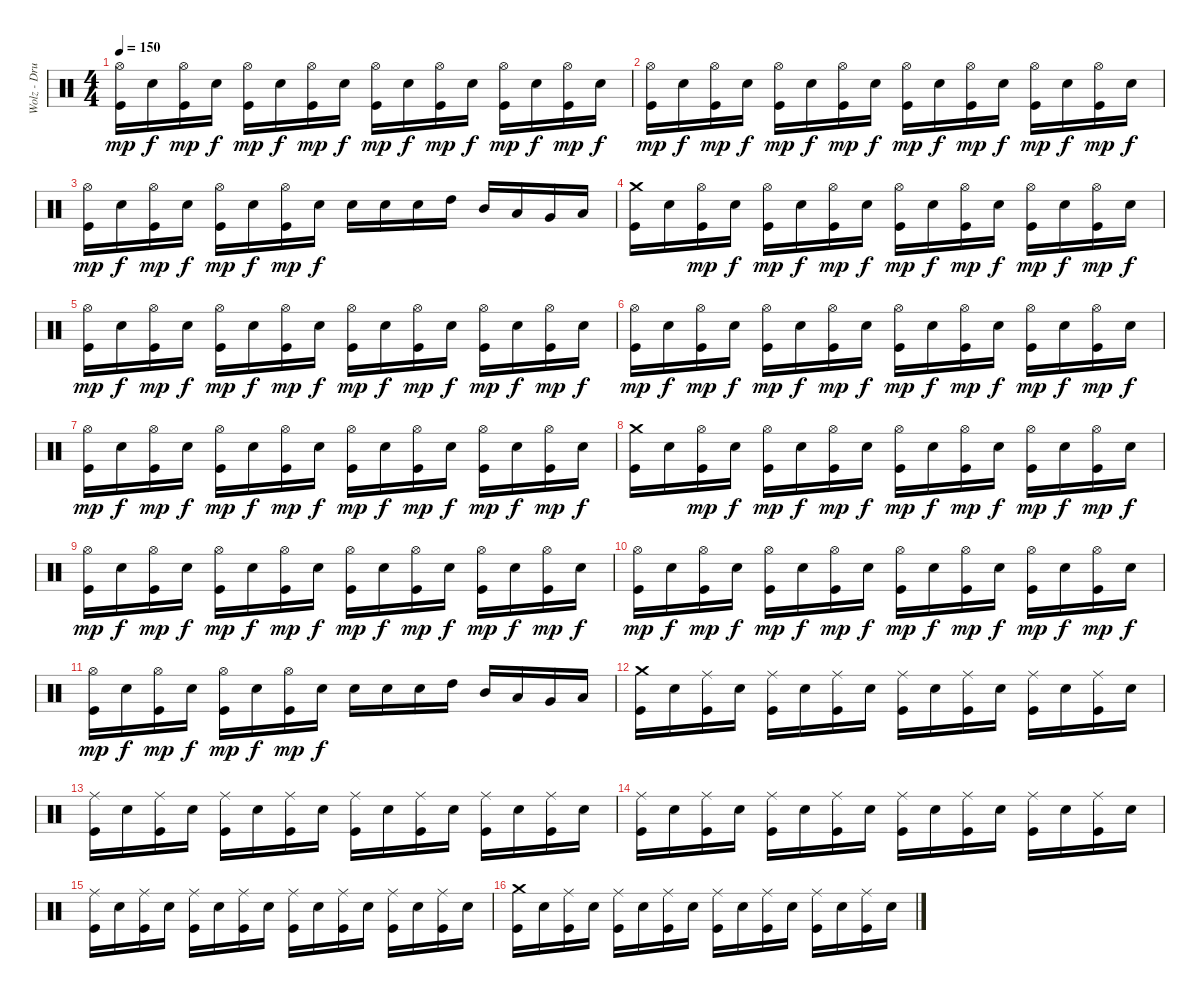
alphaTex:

\track ("Wolz - Drums" "Wolz - Dru") {instrument percussion}
\staff {score}
\articulation defaults
\ts (4 4)
\tempo 150
\clef neutral
\ks c
("Hi-Hat (open)" "Kick (hit)").16{dy mp} "Electric Snare (hit)".16{dy f} ("Hi-Hat (open)" "Kick (hit)").16{dy mp} "Electric Snare (hit)".16{dy f} ("Hi-Hat (open)" "Kick (hit)").16{dy mp} "Electric Snare (hit)".16{dy f} ("Hi-Hat (open)" "Kick (hit)").16{dy mp} "Electric Snare (hit)".16{dy f} ("Hi-Hat (open)" "Kick (hit)").16{dy mp} "Electric Snare (hit)".16{dy f} ("Hi-Hat (open)" "Kick (hit)").16{dy mp} "Electric Snare (hit)".16{dy f} ("Hi-Hat (open)" "Kick (hit)").16{dy mp} "Electric Snare (hit)".16{dy f} ("Hi-Hat (open)" "Kick (hit)").16{dy mp} "Electric Snare (hit)".16{dy f} |
("Hi-Hat (open)" "Kick (hit)").16{dy mp} "Electric Snare (hit)".16{dy f} ("Hi-Hat (open)" "Kick (hit)").16{dy mp} "Electric Snare (hit)".16{dy f} ("Hi-Hat (open)" "Kick (hit)").16{dy mp} "Electric Snare (hit)".16{dy f} ("Hi-Hat (open)" "Kick (hit)").16{dy mp} "Electric Snare (hit)".16{dy f} ("Hi-Hat (open)" "Kick (hit)").16{dy mp} "Electric Snare (hit)".16{dy f} ("Hi-Hat (open)" "Kick (hit)").16{dy mp} "Electric Snare (hit)".16{dy f} ("Hi-Hat (open)" "Kick (hit)").16{dy mp} "Electric Snare (hit)".16{dy f} ("Hi-Hat (open)" "Kick (hit)").16{dy mp} "Electric Snare (hit)".16{dy f} |
("Hi-Hat (open)" "Kick (hit)").16{dy mp} "Electric Snare (hit)".16{dy f} ("Hi-Hat (open)" "Kick (hit)").16{dy mp} "Electric Snare (hit)".16{dy f} ("Hi-Hat (open)" "Kick (hit)").16{dy mp} "Electric Snare (hit)".16{dy f} ("Hi-Hat (open)" "Kick (hit)").16{dy mp} "Electric Snare (hit)".16{dy f} "Electric Snare (hit)".16 "Electric Snare (hit)".16 "Electric Snare (hit)".16 "High Tom (hit)".16 "Mid Tom (hit)".16 "Low Tom (hit)".16 "Very Low Tom (hit)".16 "Low Floor Tom (hit)".16 |
("Crash medium (hit)" "Kick (hit)").16 "Electric Snare (hit)".16 ("Hi-Hat (open)" "Kick (hit)").16{dy mp} "Electric Snare (hit)".16{dy f} ("Hi-Hat (open)" "Kick (hit)").16{dy mp} "Electric Snare (hit)".16{dy f} ("Hi-Hat (open)" "Kick (hit)").16{dy mp} "Electric Snare (hit)".16{dy f} ("Hi-Hat (open)" "Kick (hit)").16{dy mp} "Electric Snare (hit)".16{dy f} ("Hi-Hat (open)" "Kick (hit)").16{dy mp} "Electric Snare (hit)".16{dy f} ("Hi-Hat (open)" "Kick (hit)").16{dy mp} "Electric Snare (hit)".16{dy f} ("Hi-Hat (open)" "Kick (hit)").16{dy mp} "Electric Snare (hit)".16{dy f} |
("Hi-Hat (open)" "Kick (hit)").16{dy mp} "Electric Snare (hit)".16{dy f} ("Hi-Hat (open)" "Kick (hit)").16{dy mp} "Electric Snare (hit)".16{dy f} ("Hi-Hat (open)" "Kick (hit)").16{dy mp} "Electric Snare (hit)".16{dy f} ("Hi-Hat (open)" "Kick (hit)").16{dy mp} "Electric Snare (hit)".16{dy f} ("Hi-Hat (open)" "Kick (hit)").16{dy mp} "Electric Snare (hit)".16{dy f} ("Hi-Hat (open)" "Kick (hit)").16{dy mp} "Electric Snare (hit)".16{dy f} ("Hi-Hat (open)" "Kick (hit)").16{dy mp} "Electric Snare (hit)".16{dy f} ("Hi-Hat (open)" "Kick (hit)").16{dy mp} "Electric Snare (hit)".16{dy f} |
("Hi-Hat (open)" "Kick (hit)").16{dy mp} "Electric Snare (hit)".16{dy f} ("Hi-Hat (open)" "Kick (hit)").16{dy mp} "Electric Snare (hit)".16{dy f} ("Hi-Hat (open)" "Kick (hit)").16{dy mp} "Electric Snare (hit)".16{dy f} ("Hi-Hat (open)" "Kick (hit)").16{dy mp} "Electric Snare (hit)".16{dy f} ("Hi-Hat (open)" "Kick (hit)").16{dy mp} "Electric Snare (hit)".16{dy f} ("Hi-Hat (open)" "Kick (hit)").16{dy mp} "Electric Snare (hit)".16{dy f} ("Hi-Hat (open)" "Kick (hit)").16{dy mp} "Electric Snare (hit)".16{dy f} ("Hi-Hat (open)" "Kick (hit)").16{dy mp} "Electric Snare (hit)".16{dy f} |
("Hi-Hat (open)" "Kick (hit)").16{dy mp} "Electric Snare (hit)".16{dy f} ("Hi-Hat (open)" "Kick (hit)").16{dy mp} "Electric Snare (hit)".16{dy f} ("Hi-Hat (open)" "Kick (hit)").16{dy mp} "Electric Snare (hit)".16{dy f} ("Hi-Hat (open)" "Kick (hit)").16{dy mp} "Electric Snare (hit)".16{dy f} ("Hi-Hat (open)" "Kick (hit)").16{dy mp} "Electric Snare (hit)".16{dy f} ("Hi-Hat (open)" "Kick (hit)").16{dy mp} "Electric Snare (hit)".16{dy f} ("Hi-Hat (open)" "Kick (hit)").16{dy mp} "Electric Snare (hit)".16{dy f} ("Hi-Hat (open)" "Kick (hit)").16{dy mp} "Electric Snare (hit)".16{dy f} |
("Crash medium (hit)" "Kick (hit)").16 "Electric Snare (hit)".16 ("Hi-Hat (open)" "Kick (hit)").16{dy mp} "Electric Snare (hit)".16{dy f} ("Hi-Hat (open)" "Kick (hit)").16{dy mp} "Electric Snare (hit)".16{dy f} ("Hi-Hat (open)" "Kick (hit)").16{dy mp} "Electric Snare (hit)".16{dy f} ("Hi-Hat (open)" "Kick (hit)").16{dy mp} "Electric Snare (hit)".16{dy f} ("Hi-Hat (open)" "Kick (hit)").16{dy mp} "Electric Snare (hit)".16{dy f} ("Hi-Hat (open)" "Kick (hit)").16{dy mp} "Electric Snare (hit)".16{dy f} ("Hi-Hat (open)" "Kick (hit)").16{dy mp} "Electric Snare (hit)".16{dy f} |
("Hi-Hat (open)" "Kick (hit)").16{dy mp} "Electric Snare (hit)".16{dy f} ("Hi-Hat (open)" "Kick (hit)").16{dy mp} "Electric Snare (hit)".16{dy f} ("Hi-Hat (open)" "Kick (hit)").16{dy mp} "Electric Snare (hit)".16{dy f} ("Hi-Hat (open)" "Kick (hit)").16{dy mp} "Electric Snare (hit)".16{dy f} ("Hi-Hat (open)" "Kick (hit)").16{dy mp} "Electric Snare (hit)".16{dy f} ("Hi-Hat (open)" "Kick (hit)").16{dy mp} "Electric Snare (hit)".16{dy f} ("Hi-Hat (open)" "Kick (hit)").16{dy mp} "Electric Snare (hit)".16{dy f} ("Hi-Hat (open)" "Kick (hit)").16{dy mp} "Electric Snare (hit)".16{dy f} |
("Hi-Hat (open)" "Kick (hit)").16{dy mp} "Electric Snare (hit)".16{dy f} ("Hi-Hat (open)" "Kick (hit)").16{dy mp} "Electric Snare (hit)".16{dy f} ("Hi-Hat (open)" "Kick (hit)").16{dy mp} "Electric Snare (hit)".16{dy f} ("Hi-Hat (open)" "Kick (hit)").16{dy mp} "Electric Snare (hit)".16{dy f} ("Hi-Hat (open)" "Kick (hit)").16{dy mp} "Electric Snare (hit)".16{dy f} ("Hi-Hat (open)" "Kick (hit)").16{dy mp} "Electric Snare (hit)".16{dy f} ("Hi-Hat (open)" "Kick (hit)").16{dy mp} "Electric Snare (hit)".16{dy f} ("Hi-Hat (open)" "Kick (hit)").16{dy mp} "Electric Snare (hit)".16{dy f} |
("Hi-Hat (open)" "Kick (hit)").16{dy mp} "Electric Snare (hit)".16{dy f} ("Hi-Hat (open)" "Kick (hit)").16{dy mp} "Electric Snare (hit)".16{dy f} ("Hi-Hat (open)" "Kick (hit)").16{dy mp} "Electric Snare (hit)".16{dy f} ("Hi-Hat (open)" "Kick (hit)").16{dy mp} "Electric Snare (hit)".16{dy f} "Electric Snare (hit)".16 "Electric Snare (hit)".16 "Electric Snare (hit)".16 "High Tom (hit)".16 "Mid Tom (hit)".16 "Low Tom (hit)".16 "Very Low Tom (hit)".16 "Low Floor Tom (hit)".16 |
("Crash medium (hit)" "Kick (hit)").16 "Electric Snare (hit)".16 ("Ride (middle)" "Kick (hit)").16 "Electric Snare (hit)".16 ("Ride (middle)" "Kick (hit)").16 "Electric Snare (hit)".16 ("Ride (middle)" "Kick (hit)").16 "Electric Snare (hit)".16 ("Ride (middle)" "Kick (hit)").16 "Electric Snare (hit)".16 ("Ride (middle)" "Kick (hit)").16 "Electric Snare (hit)".16 ("Ride (middle)" "Kick (hit)").16 "Electric Snare (hit)".16 ("Ride (middle)" "Kick (hit)").16 "Electric Snare (hit)".16 |
("Ride (middle)" "Kick (hit)").16 "Electric Snare (hit)".16 ("Ride (middle)" "Kick (hit)").16 "Electric Snare (hit)".16 ("Ride (middle)" "Kick (hit)").16 "Electric Snare (hit)".16 ("Ride (middle)" "Kick (hit)").16 "Electric Snare (hit)".16 ("Ride (middle)" "Kick (hit)").16 "Electric Snare (hit)".16 ("Ride (middle)" "Kick (hit)").16 "Electric Snare (hit)".16 ("Ride (middle)" "Kick (hit)").16 "Electric Snare (hit)".16 ("Ride (middle)" "Kick (hit)").16 "Electric Snare (hit)".16 |
("Ride (middle)" "Kick (hit)").16 "Electric Snare (hit)".16 ("Ride (middle)" "Kick (hit)").16 "Electric Snare (hit)".16 ("Ride (middle)" "Kick (hit)").16 "Electric Snare (hit)".16 ("Ride (middle)" "Kick (hit)").16 "Electric Snare (hit)".16 ("Ride (middle)" "Kick (hit)").16 "Electric Snare (hit)".16 ("Ride (middle)" "Kick (hit)").16 "Electric Snare (hit)".16 ("Ride (middle)" "Kick (hit)").16 "Electric Snare (hit)".16 ("Ride (middle)" "Kick (hit)").16 "Electric Snare (hit)".16 |
("Ride (middle)" "Kick (hit)").16 "Electric Snare (hit)".16 ("Ride (middle)" "Kick (hit)").16 "Electric Snare (hit)".16 ("Ride (middle)" "Kick (hit)").16 "Electric Snare (hit)".16 ("Ride (middle)" "Kick (hit)").16 "Electric Snare (hit)".16 ("Ride (middle)" "Kick (hit)").16 "Electric Snare (hit)".16 ("Ride (middle)" "Kick (hit)").16 "Electric Snare (hit)".16 ("Ride (middle)" "Kick (hit)").16 "Electric Snare (hit)".16 ("Ride (middle)" "Kick (hit)").16 "Electric Snare (hit)".16 |
("Crash medium (hit)" "Kick (hit)").16 "Electric Snare (hit)".16 ("Ride (middle)" "Kick (hit)").16 "Electric Snare (hit)".16 ("Ride (middle)" "Kick (hit)").16 "Electric Snare (hit)".16 ("Ride (middle)" "Kick (hit)").16 "Electric Snare (hit)".16 ("Ride (middle)" "Kick (hit)").16 "Electric Snare (hit)".16 ("Ride (middle)" "Kick (hit)").16 "Electric Snare (hit)".16 ("Ride (middle)" "Kick (hit)").16 "Electric Snare (hit)".16 ("Ride (middle)" "Kick (hit)").16 "Electric Snare (hit)".16
